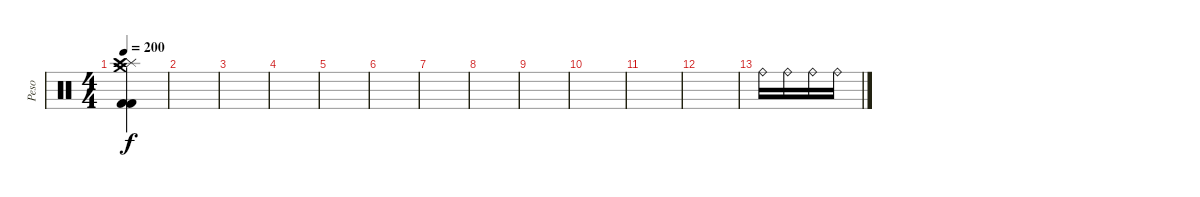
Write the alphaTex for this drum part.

\track ("Peso" "Peso") {instrument percussion}
\staff {score}
\articulation defaults
\ts (4 4)
\tempo 200
\clef neutral
\ks c
("Splash (hit)" "Crash medium (hit)" "Crash high (hit)" "Kick (hit) 2" "Kick (hit) 2").4{dy f} |
|
|
|
|
|
|
|
|
|
|
|
"Ride (bell)".16 "Ride (bell)".16 "Ride (bell)".16 "Ride (bell)".16
